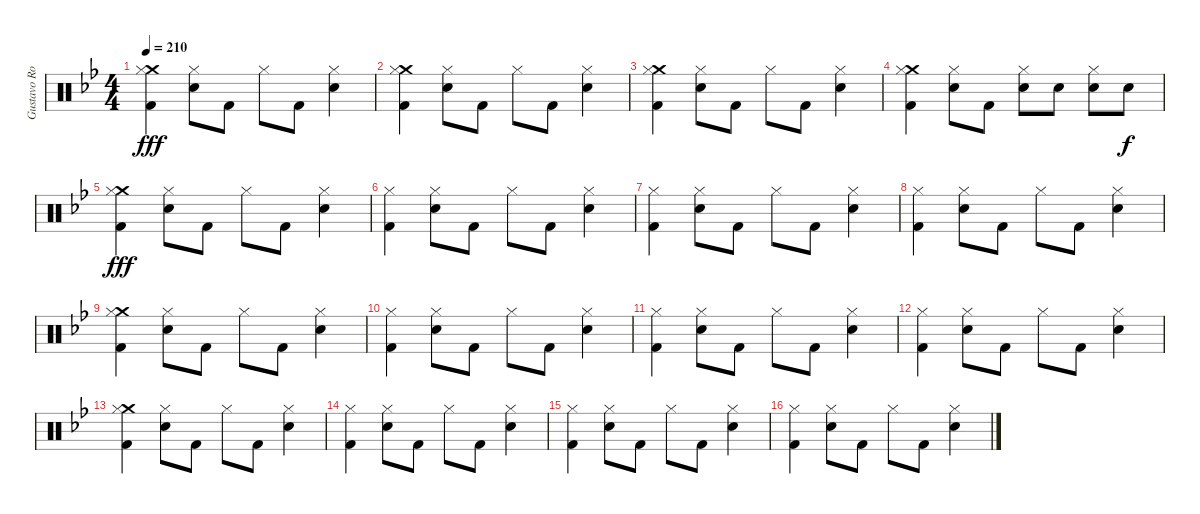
\track ("Gustavo Rowek" "Gustavo Ro") {instrument percussion}
\staff {score}
\articulation defaults
\ts (4 4)
\tempo 210
\clef neutral
\ks gminor
("Crash medium (hit)" "Hi-Hat (closed)" "Kick (hit) 2").4{dy fff} ("Hi-Hat (closed)" "Snare (hit) 2").8 "Kick (hit) 2".8 "Hi-Hat (closed)".8 "Kick (hit) 2".8 ("Hi-Hat (closed)" "Snare (hit) 2").4 |
("Crash medium (hit)" "Hi-Hat (closed)" "Kick (hit) 2").4 ("Hi-Hat (closed)" "Snare (hit) 2").8 "Kick (hit) 2".8 "Hi-Hat (closed)".8 "Kick (hit) 2".8 ("Hi-Hat (closed)" "Snare (hit) 2").4 |
("Crash medium (hit)" "Hi-Hat (closed)" "Kick (hit) 2").4 ("Hi-Hat (closed)" "Snare (hit) 2").8 "Kick (hit) 2".8 "Hi-Hat (closed)".8 "Kick (hit) 2".8 ("Hi-Hat (closed)" "Snare (hit) 2").4 |
("Crash medium (hit)" "Hi-Hat (closed)" "Kick (hit) 2").4 ("Hi-Hat (closed)" "Snare (hit) 2").8 "Kick (hit) 2".8 ("Hi-Hat (closed)" "Snare (hit) 2").8 "Snare (hit) 2".8 ("Hi-Hat (closed)" "Snare (hit) 2").8 "Snare (hit) 2".8{dy f} |
("Crash medium (hit)" "Hi-Hat (closed)" "Kick (hit) 2").4{dy fff} ("Hi-Hat (closed)" "Snare (hit) 2").8 "Kick (hit) 2".8 "Hi-Hat (closed)".8 "Kick (hit) 2".8 ("Hi-Hat (closed)" "Snare (hit) 2").4 |
("Hi-Hat (closed)" "Kick (hit) 2").4 ("Hi-Hat (closed)" "Snare (hit) 2").8 "Kick (hit) 2".8 "Hi-Hat (closed)".8 "Kick (hit) 2".8 ("Hi-Hat (closed)" "Snare (hit) 2").4 |
("Hi-Hat (closed)" "Kick (hit) 2").4 ("Hi-Hat (closed)" "Snare (hit) 2").8 "Kick (hit) 2".8 "Hi-Hat (closed)".8 "Kick (hit) 2".8 ("Hi-Hat (closed)" "Snare (hit) 2").4 |
("Hi-Hat (closed)" "Kick (hit) 2").4 ("Hi-Hat (closed)" "Snare (hit) 2").8 "Kick (hit) 2".8 "Hi-Hat (closed)".8 "Kick (hit) 2".8 ("Hi-Hat (closed)" "Snare (hit) 2").4 |
("Crash medium (hit)" "Hi-Hat (closed)" "Kick (hit) 2").4 ("Hi-Hat (closed)" "Snare (hit) 2").8 "Kick (hit) 2".8 "Hi-Hat (closed)".8 "Kick (hit) 2".8 ("Hi-Hat (closed)" "Snare (hit) 2").4 |
("Hi-Hat (closed)" "Kick (hit) 2").4 ("Hi-Hat (closed)" "Snare (hit) 2").8 "Kick (hit) 2".8 "Hi-Hat (closed)".8 "Kick (hit) 2".8 ("Hi-Hat (closed)" "Snare (hit) 2").4 |
("Hi-Hat (closed)" "Kick (hit) 2").4 ("Hi-Hat (closed)" "Snare (hit) 2").8 "Kick (hit) 2".8 "Hi-Hat (closed)".8 "Kick (hit) 2".8 ("Hi-Hat (closed)" "Snare (hit) 2").4 |
("Hi-Hat (closed)" "Kick (hit) 2").4 ("Hi-Hat (closed)" "Snare (hit) 2").8 "Kick (hit) 2".8 "Hi-Hat (closed)".8 "Kick (hit) 2".8 ("Hi-Hat (closed)" "Snare (hit) 2").4 |
("Crash medium (hit)" "Hi-Hat (closed)" "Kick (hit) 2").4 ("Hi-Hat (closed)" "Snare (hit) 2").8 "Kick (hit) 2".8 "Hi-Hat (closed)".8 "Kick (hit) 2".8 ("Hi-Hat (closed)" "Snare (hit) 2").4 |
("Hi-Hat (closed)" "Kick (hit) 2").4 ("Hi-Hat (closed)" "Snare (hit) 2").8 "Kick (hit) 2".8 "Hi-Hat (closed)".8 "Kick (hit) 2".8 ("Hi-Hat (closed)" "Snare (hit) 2").4 |
("Hi-Hat (closed)" "Kick (hit) 2").4 ("Hi-Hat (closed)" "Snare (hit) 2").8 "Kick (hit) 2".8 "Hi-Hat (closed)".8 "Kick (hit) 2".8 ("Hi-Hat (closed)" "Snare (hit) 2").4 |
("Hi-Hat (closed)" "Kick (hit) 2").4 ("Hi-Hat (closed)" "Snare (hit) 2").8 "Kick (hit) 2".8 "Hi-Hat (closed)".8 "Kick (hit) 2".8 ("Hi-Hat (closed)" "Snare (hit) 2").4
